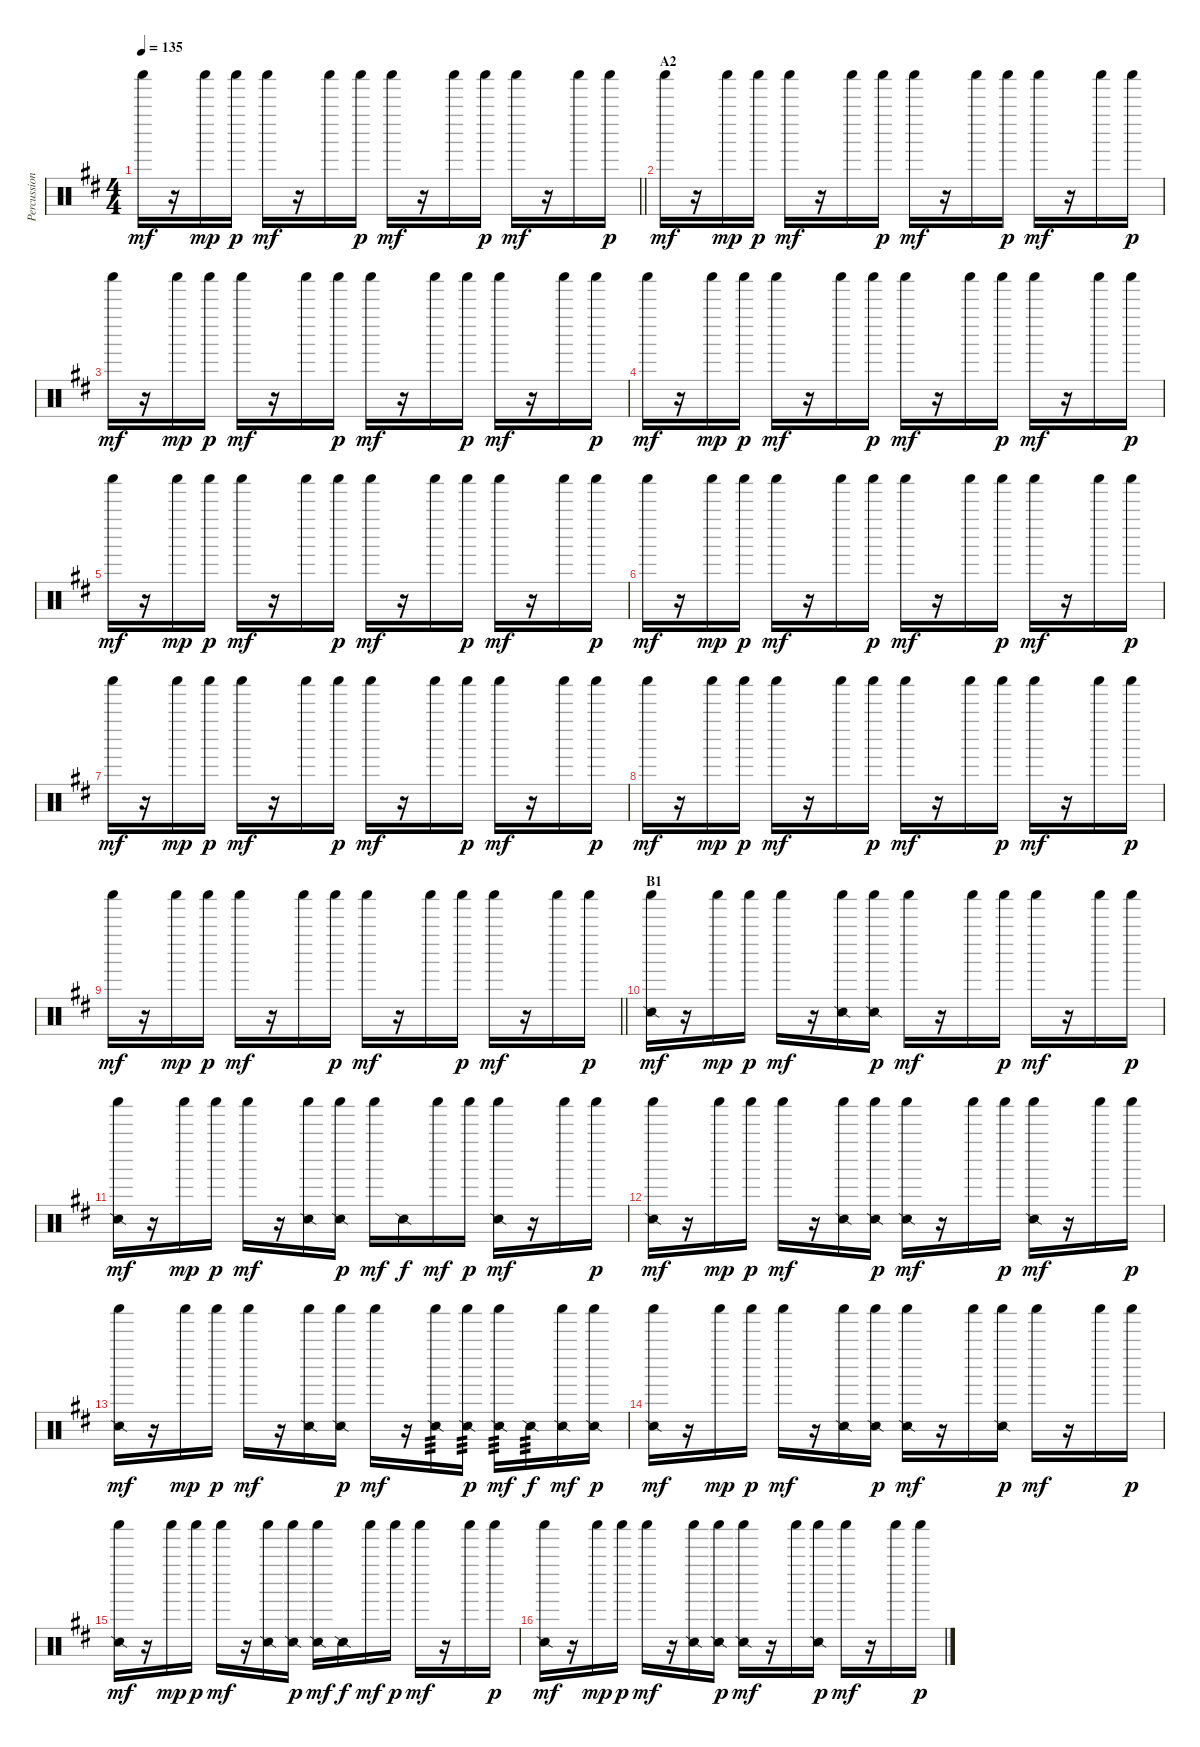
\track ("Percussion" "Percussion") {instrument percussion}
\staff {score}
\articulation defaults
\ts (4 4)
\tempo 135
\clef neutral
\barLineRight lightlight
\ks d "Shaker (hit)".16{dy mf}
r.16 "Shaker (hit)".16{dy mp} "Shaker (hit)".16{dy p} "Shaker (hit)".16{dy mf} r.16 "Shaker (hit)".16 "Shaker (hit)".16{dy p} "Shaker (hit)".16{dy mf} r.16 "Shaker (hit)".16 "Shaker (hit)".16{dy p} "Shaker (hit)".16{dy mf} r.16 "Shaker (hit)".16 "Shaker (hit)".16{dy p} |
\section ("" "A2")
"Shaker (hit)".16{dy mf} r.16 "Shaker (hit)".16{dy mp} "Shaker (hit)".16{dy p} "Shaker (hit)".16{dy mf} r.16 "Shaker (hit)".16 "Shaker (hit)".16{dy p} "Shaker (hit)".16{dy mf} r.16 "Shaker (hit)".16 "Shaker (hit)".16{dy p} "Shaker (hit)".16{dy mf} r.16 "Shaker (hit)".16 "Shaker (hit)".16{dy p} |
"Shaker (hit)".16{dy mf} r.16 "Shaker (hit)".16{dy mp} "Shaker (hit)".16{dy p} "Shaker (hit)".16{dy mf} r.16 "Shaker (hit)".16 "Shaker (hit)".16{dy p} "Shaker (hit)".16{dy mf} r.16 "Shaker (hit)".16 "Shaker (hit)".16{dy p} "Shaker (hit)".16{dy mf} r.16 "Shaker (hit)".16 "Shaker (hit)".16{dy p} |
"Shaker (hit)".16{dy mf} r.16 "Shaker (hit)".16{dy mp} "Shaker (hit)".16{dy p} "Shaker (hit)".16{dy mf} r.16 "Shaker (hit)".16 "Shaker (hit)".16{dy p} "Shaker (hit)".16{dy mf} r.16 "Shaker (hit)".16 "Shaker (hit)".16{dy p} "Shaker (hit)".16{dy mf} r.16 "Shaker (hit)".16 "Shaker (hit)".16{dy p} |
"Shaker (hit)".16{dy mf} r.16 "Shaker (hit)".16{dy mp} "Shaker (hit)".16{dy p} "Shaker (hit)".16{dy mf} r.16 "Shaker (hit)".16 "Shaker (hit)".16{dy p} "Shaker (hit)".16{dy mf} r.16 "Shaker (hit)".16 "Shaker (hit)".16{dy p} "Shaker (hit)".16{dy mf} r.16 "Shaker (hit)".16 "Shaker (hit)".16{dy p} |
"Shaker (hit)".16{dy mf} r.16 "Shaker (hit)".16{dy mp} "Shaker (hit)".16{dy p} "Shaker (hit)".16{dy mf} r.16 "Shaker (hit)".16 "Shaker (hit)".16{dy p} "Shaker (hit)".16{dy mf} r.16 "Shaker (hit)".16 "Shaker (hit)".16{dy p} "Shaker (hit)".16{dy mf} r.16 "Shaker (hit)".16 "Shaker (hit)".16{dy p} |
"Shaker (hit)".16{dy mf} r.16 "Shaker (hit)".16{dy mp} "Shaker (hit)".16{dy p} "Shaker (hit)".16{dy mf} r.16 "Shaker (hit)".16 "Shaker (hit)".16{dy p} "Shaker (hit)".16{dy mf} r.16 "Shaker (hit)".16 "Shaker (hit)".16{dy p} "Shaker (hit)".16{dy mf} r.16 "Shaker (hit)".16 "Shaker (hit)".16{dy p} |
"Shaker (hit)".16{dy mf} r.16 "Shaker (hit)".16{dy mp} "Shaker (hit)".16{dy p} "Shaker (hit)".16{dy mf} r.16 "Shaker (hit)".16 "Shaker (hit)".16{dy p} "Shaker (hit)".16{dy mf} r.16 "Shaker (hit)".16 "Shaker (hit)".16{dy p} "Shaker (hit)".16{dy mf} r.16 "Shaker (hit)".16 "Shaker (hit)".16{dy p} |
\barLineRight lightlight "Shaker (hit)".16{dy mf}
r.16 "Shaker (hit)".16{dy mp} "Shaker (hit)".16{dy p} "Shaker (hit)".16{dy mf} r.16 "Shaker (hit)".16 "Shaker (hit)".16{dy p} "Shaker (hit)".16{dy mf} r.16 "Shaker (hit)".16 "Shaker (hit)".16{dy p} "Shaker (hit)".16{dy mf} r.16 "Shaker (hit)".16 "Shaker (hit)".16{dy p} |
\section ("" "B1")
("Snare (side stick) 2" "Shaker (hit)").16{dy mf} r.16 "Shaker (hit)".16{dy mp} "Shaker (hit)".16{dy p} "Shaker (hit)".16{dy mf} r.16 ("Snare (side stick) 2" "Shaker (hit)").16 ("Snare (side stick) 2" "Shaker (hit)").16{dy p} "Shaker (hit)".16{dy mf} r.16 "Shaker (hit)".16 "Shaker (hit)".16{dy p} "Shaker (hit)".16{dy mf} r.16 "Shaker (hit)".16 "Shaker (hit)".16{dy p} |
("Snare (side stick) 2" "Shaker (hit)").16{dy mf} r.16 "Shaker (hit)".16{dy mp} "Shaker (hit)".16{dy p} "Shaker (hit)".16{dy mf} r.16 ("Snare (side stick) 2" "Shaker (hit)").16 ("Snare (side stick) 2" "Shaker (hit)").16{dy p} "Shaker (hit)".16{dy mf} "Snare (side stick) 2".16{dy f} "Shaker (hit)".16{dy mf} "Shaker (hit)".16{dy p} ("Snare (side stick) 2" "Shaker (hit)").16{dy mf} r.16 "Shaker (hit)".16 "Shaker (hit)".16{dy p} |
("Snare (side stick) 2" "Shaker (hit)").16{dy mf} r.16 "Shaker (hit)".16{dy mp} "Shaker (hit)".16{dy p} "Shaker (hit)".16{dy mf} r.16 ("Snare (side stick) 2" "Shaker (hit)").16 ("Snare (side stick) 2" "Shaker (hit)").16{dy p} ("Snare (side stick) 2" "Shaker (hit)").16{dy mf} r.16 "Shaker (hit)".16 "Shaker (hit)".16{dy p} ("Snare (side stick) 2" "Shaker (hit)").16{dy mf} r.16 "Shaker (hit)".16 "Shaker (hit)".16{dy p} |
("Snare (side stick) 2" "Shaker (hit)").16{dy mf} r.16 "Shaker (hit)".16{dy mp} "Shaker (hit)".16{dy p} "Shaker (hit)".16{dy mf} r.16 ("Snare (side stick) 2" "Shaker (hit)").16 ("Snare (side stick) 2" "Shaker (hit)").16{dy p} "Shaker (hit)".16{dy mf} r.16 ("Snare (side stick) 2" "Shaker (hit)").16{tp 3} ("Snare (side stick) 2" "Shaker (hit)").16{tp 3 dy p} ("Snare (side stick) 2" "Shaker (hit)").16{tp 3 dy mf} "Snare (side stick) 2".16{tp 3 dy f} ("Snare (side stick) 2" "Shaker (hit)").16{dy mf} ("Snare (side stick) 2" "Shaker (hit)").16{dy p} |
("Snare (side stick) 2" "Shaker (hit)").16{dy mf} r.16 "Shaker (hit)".16{dy mp} "Shaker (hit)".16{dy p} "Shaker (hit)".16{dy mf} r.16 ("Snare (side stick) 2" "Shaker (hit)").16 ("Snare (side stick) 2" "Shaker (hit)").16{dy p} ("Snare (side stick) 2" "Shaker (hit)").16{dy mf} r.16 "Shaker (hit)".16 ("Snare (side stick) 2" "Shaker (hit)").16{dy p} "Shaker (hit)".16{dy mf} r.16 "Shaker (hit)".16 "Shaker (hit)".16{dy p} |
("Snare (side stick) 2" "Shaker (hit)").16{dy mf} r.16 "Shaker (hit)".16{dy mp} "Shaker (hit)".16{dy p} "Shaker (hit)".16{dy mf} r.16 ("Snare (side stick) 2" "Shaker (hit)").16 ("Snare (side stick) 2" "Shaker (hit)").16{dy p} ("Snare (side stick) 2" "Shaker (hit)").16{dy mf} "Snare (side stick) 2".16{dy f} "Shaker (hit)".16{dy mf} "Shaker (hit)".16{dy p} "Shaker (hit)".16{dy mf} r.16 "Shaker (hit)".16 "Shaker (hit)".16{dy p} |
("Snare (side stick) 2" "Shaker (hit)").16{dy mf} r.16 "Shaker (hit)".16{dy mp} "Shaker (hit)".16{dy p} "Shaker (hit)".16{dy mf} r.16 ("Snare (side stick) 2" "Shaker (hit)").16 ("Snare (side stick) 2" "Shaker (hit)").16{dy p} ("Snare (side stick) 2" "Shaker (hit)").16{dy mf} r.16 "Shaker (hit)".16 ("Snare (side stick) 2" "Shaker (hit)").16{dy p} "Shaker (hit)".16{dy mf} r.16 "Shaker (hit)".16 "Shaker (hit)".16{dy p}
